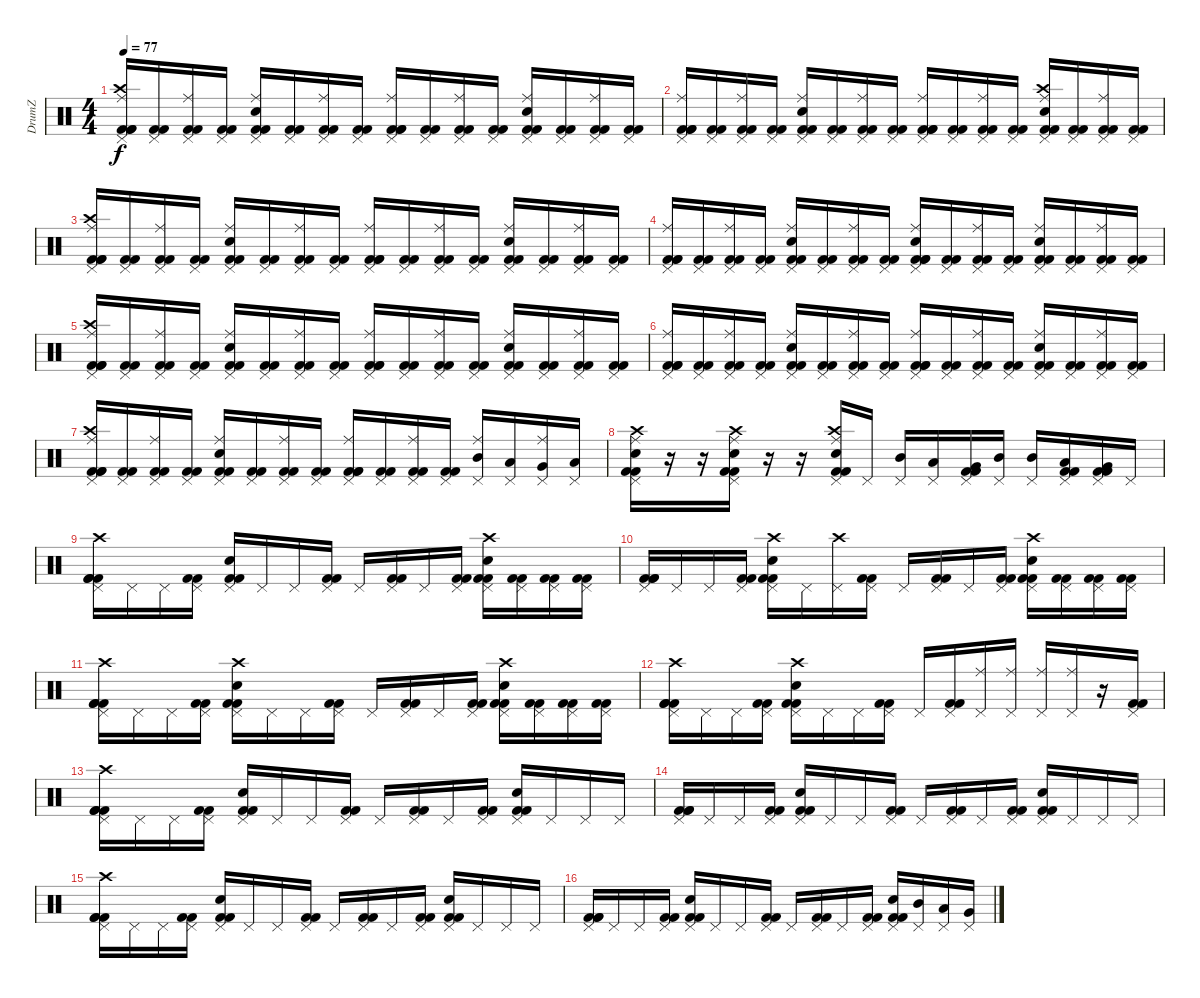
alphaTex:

\track ("DrumZ" "DrumZ") {instrument percussion}
\staff {score}
\articulation defaults
\ts (4 4)
\tempo 77
\clef neutral
\ks c
("Ride (middle)" "Crash high (hit)" "Kick (hit) 2" "Kick (hit) 2" "Kick (hit) 2" "Pedal Hi-Hat (hit)").16{dy f} ("Kick (hit) 2" "Kick (hit) 2" "Pedal Hi-Hat (hit)").16 ("Ride (middle)" "Kick (hit) 2" "Kick (hit) 2" "Pedal Hi-Hat (hit)").16 ("Kick (hit) 2" "Kick (hit) 2" "Pedal Hi-Hat (hit)").16 ("Ride (middle)" "Electric Snare (hit)" "Kick (hit) 2" "Kick (hit) 2" "Pedal Hi-Hat (hit)").16 ("Kick (hit) 2" "Kick (hit) 2" "Pedal Hi-Hat (hit)").16 ("Ride (middle)" "Kick (hit) 2" "Kick (hit) 2" "Pedal Hi-Hat (hit)").16 ("Kick (hit) 2" "Kick (hit) 2" "Pedal Hi-Hat (hit)").16 ("Ride (middle)" "Kick (hit) 2" "Kick (hit) 2" "Kick (hit) 2" "Pedal Hi-Hat (hit)").16 ("Kick (hit) 2" "Kick (hit) 2" "Pedal Hi-Hat (hit)").16 ("Ride (middle)" "Kick (hit) 2" "Kick (hit) 2" "Pedal Hi-Hat (hit)").16 ("Kick (hit) 2" "Kick (hit) 2" "Pedal Hi-Hat (hit)").16 ("Ride (middle)" "Electric Snare (hit)" "Kick (hit) 2" "Kick (hit) 2" "Pedal Hi-Hat (hit)").16 ("Kick (hit) 2" "Kick (hit) 2" "Pedal Hi-Hat (hit)").16 ("Ride (middle)" "Kick (hit) 2" "Kick (hit) 2" "Pedal Hi-Hat (hit)").16 ("Kick (hit) 2" "Kick (hit) 2" "Pedal Hi-Hat (hit)").16 |
("Pedal Hi-Hat (hit)" "Kick (hit) 2" "Kick (hit) 2" "Kick (hit) 2" "Ride (middle)").16 ("Pedal Hi-Hat (hit)" "Kick (hit) 2" "Kick (hit) 2").16 ("Pedal Hi-Hat (hit)" "Kick (hit) 2" "Kick (hit) 2" "Ride (middle)").16 ("Pedal Hi-Hat (hit)" "Kick (hit) 2" "Kick (hit) 2").16 ("Pedal Hi-Hat (hit)" "Electric Snare (hit)" "Kick (hit) 2" "Kick (hit) 2" "Ride (middle)").16 ("Pedal Hi-Hat (hit)" "Kick (hit) 2" "Kick (hit) 2").16 ("Pedal Hi-Hat (hit)" "Kick (hit) 2" "Kick (hit) 2" "Ride (middle)").16 ("Pedal Hi-Hat (hit)" "Kick (hit) 2" "Kick (hit) 2").16 ("Pedal Hi-Hat (hit)" "Kick (hit) 2" "Kick (hit) 2" "Kick (hit) 2" "Ride (middle)").16 ("Pedal Hi-Hat (hit)" "Kick (hit) 2" "Kick (hit) 2").16 ("Pedal Hi-Hat (hit)" "Kick (hit) 2" "Kick (hit) 2" "Ride (middle)").16 ("Pedal Hi-Hat (hit)" "Kick (hit) 2" "Kick (hit) 2").16 ("Pedal Hi-Hat (hit)" "Electric Snare (hit)" "Kick (hit) 2" "Kick (hit) 2" "Crash high (hit)" "Ride (middle)").16 ("Pedal Hi-Hat (hit)" "Kick (hit) 2" "Kick (hit) 2").16 ("Pedal Hi-Hat (hit)" "Kick (hit) 2" "Kick (hit) 2" "Ride (middle)").16 ("Pedal Hi-Hat (hit)" "Kick (hit) 2" "Kick (hit) 2").16 |
("Pedal Hi-Hat (hit)" "Crash high (hit)" "Kick (hit) 2" "Kick (hit) 2" "Kick (hit) 2" "Ride (middle)").16 ("Pedal Hi-Hat (hit)" "Kick (hit) 2" "Kick (hit) 2").16 ("Pedal Hi-Hat (hit)" "Kick (hit) 2" "Kick (hit) 2" "Ride (middle)").16 ("Pedal Hi-Hat (hit)" "Kick (hit) 2" "Kick (hit) 2").16 ("Pedal Hi-Hat (hit)" "Electric Snare (hit)" "Kick (hit) 2" "Kick (hit) 2" "Ride (middle)").16 ("Pedal Hi-Hat (hit)" "Kick (hit) 2" "Kick (hit) 2").16 ("Pedal Hi-Hat (hit)" "Kick (hit) 2" "Kick (hit) 2" "Ride (middle)").16 ("Pedal Hi-Hat (hit)" "Kick (hit) 2" "Kick (hit) 2").16 ("Pedal Hi-Hat (hit)" "Kick (hit) 2" "Kick (hit) 2" "Kick (hit) 2" "Ride (middle)").16 ("Pedal Hi-Hat (hit)" "Kick (hit) 2" "Kick (hit) 2").16 ("Pedal Hi-Hat (hit)" "Kick (hit) 2" "Kick (hit) 2" "Ride (middle)").16 ("Pedal Hi-Hat (hit)" "Kick (hit) 2" "Kick (hit) 2").16 ("Pedal Hi-Hat (hit)" "Electric Snare (hit)" "Kick (hit) 2" "Kick (hit) 2" "Ride (middle)").16 ("Pedal Hi-Hat (hit)" "Kick (hit) 2" "Kick (hit) 2").16 ("Pedal Hi-Hat (hit)" "Kick (hit) 2" "Kick (hit) 2" "Ride (middle)").16 ("Pedal Hi-Hat (hit)" "Kick (hit) 2" "Kick (hit) 2").16 |
("Pedal Hi-Hat (hit)" "Kick (hit) 2" "Kick (hit) 2" "Kick (hit) 2" "Ride (middle)").16 ("Pedal Hi-Hat (hit)" "Kick (hit) 2" "Kick (hit) 2").16 ("Pedal Hi-Hat (hit)" "Kick (hit) 2" "Kick (hit) 2" "Ride (middle)").16 ("Pedal Hi-Hat (hit)" "Kick (hit) 2" "Kick (hit) 2").16 ("Pedal Hi-Hat (hit)" "Electric Snare (hit)" "Kick (hit) 2" "Kick (hit) 2" "Ride (middle)").16 ("Pedal Hi-Hat (hit)" "Kick (hit) 2" "Kick (hit) 2").16 ("Pedal Hi-Hat (hit)" "Kick (hit) 2" "Kick (hit) 2" "Ride (middle)").16 ("Pedal Hi-Hat (hit)" "Kick (hit) 2" "Kick (hit) 2").16 ("Pedal Hi-Hat (hit)" "Electric Snare (hit)" "Kick (hit) 2" "Kick (hit) 2" "Kick (hit) 2" "Ride (middle)").16 ("Pedal Hi-Hat (hit)" "Kick (hit) 2" "Kick (hit) 2").16 ("Pedal Hi-Hat (hit)" "Kick (hit) 2" "Kick (hit) 2" "Ride (middle)").16 ("Pedal Hi-Hat (hit)" "Kick (hit) 2" "Kick (hit) 2").16 ("Pedal Hi-Hat (hit)" "Electric Snare (hit)" "Kick (hit) 2" "Kick (hit) 2" "Ride (middle)").16 ("Pedal Hi-Hat (hit)" "Kick (hit) 2" "Kick (hit) 2").16 ("Pedal Hi-Hat (hit)" "Kick (hit) 2" "Kick (hit) 2" "Ride (middle)").16 ("Pedal Hi-Hat (hit)" "Kick (hit) 2" "Kick (hit) 2").16 |
("Pedal Hi-Hat (hit)" "Crash high (hit)" "Kick (hit) 2" "Kick (hit) 2" "Kick (hit) 2" "Ride (middle)").16 ("Pedal Hi-Hat (hit)" "Kick (hit) 2" "Kick (hit) 2").16 ("Pedal Hi-Hat (hit)" "Kick (hit) 2" "Kick (hit) 2" "Ride (middle)").16 ("Pedal Hi-Hat (hit)" "Kick (hit) 2" "Kick (hit) 2").16 ("Pedal Hi-Hat (hit)" "Electric Snare (hit)" "Kick (hit) 2" "Kick (hit) 2" "Ride (middle)").16 ("Pedal Hi-Hat (hit)" "Kick (hit) 2" "Kick (hit) 2").16 ("Pedal Hi-Hat (hit)" "Kick (hit) 2" "Kick (hit) 2" "Ride (middle)").16 ("Pedal Hi-Hat (hit)" "Kick (hit) 2" "Kick (hit) 2").16 ("Pedal Hi-Hat (hit)" "Kick (hit) 2" "Kick (hit) 2" "Kick (hit) 2" "Ride (middle)").16 ("Pedal Hi-Hat (hit)" "Kick (hit) 2" "Kick (hit) 2").16 ("Pedal Hi-Hat (hit)" "Kick (hit) 2" "Kick (hit) 2" "Ride (middle)").16 ("Pedal Hi-Hat (hit)" "Kick (hit) 2" "Kick (hit) 2").16 ("Pedal Hi-Hat (hit)" "Electric Snare (hit)" "Kick (hit) 2" "Kick (hit) 2" "Ride (middle)").16 ("Pedal Hi-Hat (hit)" "Kick (hit) 2" "Kick (hit) 2").16 ("Pedal Hi-Hat (hit)" "Kick (hit) 2" "Kick (hit) 2" "Ride (middle)").16 ("Pedal Hi-Hat (hit)" "Kick (hit) 2" "Kick (hit) 2").16 |
("Pedal Hi-Hat (hit)" "Kick (hit) 2" "Kick (hit) 2" "Kick (hit) 2" "Ride (middle)").16 ("Pedal Hi-Hat (hit)" "Kick (hit) 2" "Kick (hit) 2").16 ("Pedal Hi-Hat (hit)" "Kick (hit) 2" "Kick (hit) 2" "Ride (middle)").16 ("Pedal Hi-Hat (hit)" "Kick (hit) 2" "Kick (hit) 2").16 ("Pedal Hi-Hat (hit)" "Electric Snare (hit)" "Kick (hit) 2" "Kick (hit) 2" "Ride (middle)").16 ("Pedal Hi-Hat (hit)" "Kick (hit) 2" "Kick (hit) 2").16 ("Pedal Hi-Hat (hit)" "Kick (hit) 2" "Kick (hit) 2" "Ride (middle)").16 ("Pedal Hi-Hat (hit)" "Kick (hit) 2" "Kick (hit) 2").16 ("Pedal Hi-Hat (hit)" "Kick (hit) 2" "Kick (hit) 2" "Kick (hit) 2" "Ride (middle)").16 ("Pedal Hi-Hat (hit)" "Kick (hit) 2" "Kick (hit) 2").16 ("Pedal Hi-Hat (hit)" "Kick (hit) 2" "Kick (hit) 2" "Ride (middle)").16 ("Pedal Hi-Hat (hit)" "Kick (hit) 2" "Kick (hit) 2").16 ("Pedal Hi-Hat (hit)" "Electric Snare (hit)" "Kick (hit) 2" "Kick (hit) 2" "Ride (middle)").16 ("Pedal Hi-Hat (hit)" "Kick (hit) 2" "Kick (hit) 2").16 ("Pedal Hi-Hat (hit)" "Kick (hit) 2" "Kick (hit) 2" "Ride (middle)").16 ("Pedal Hi-Hat (hit)" "Kick (hit) 2" "Kick (hit) 2").16 |
("Pedal Hi-Hat (hit)" "Crash high (hit)" "Kick (hit) 2" "Kick (hit) 2" "Kick (hit) 2" "Ride (middle)").16 ("Pedal Hi-Hat (hit)" "Kick (hit) 2" "Kick (hit) 2").16 ("Pedal Hi-Hat (hit)" "Kick (hit) 2" "Kick (hit) 2" "Ride (middle)").16 ("Pedal Hi-Hat (hit)" "Kick (hit) 2" "Kick (hit) 2").16 ("Pedal Hi-Hat (hit)" "Electric Snare (hit)" "Kick (hit) 2" "Kick (hit) 2" "Ride (middle)").16 ("Pedal Hi-Hat (hit)" "Kick (hit) 2" "Kick (hit) 2").16 ("Pedal Hi-Hat (hit)" "Kick (hit) 2" "Kick (hit) 2" "Ride (middle)").16 ("Pedal Hi-Hat (hit)" "Kick (hit) 2" "Kick (hit) 2").16 ("Pedal Hi-Hat (hit)" "Kick (hit) 2" "Kick (hit) 2" "Kick (hit) 2" "Ride (middle)").16 ("Pedal Hi-Hat (hit)" "Kick (hit) 2" "Kick (hit) 2").16 ("Pedal Hi-Hat (hit)" "Kick (hit) 2" "Kick (hit) 2" "Ride (middle)").16 ("Pedal Hi-Hat (hit)" "Kick (hit) 2" "Kick (hit) 2").16 ("Pedal Hi-Hat (hit)" "Mid Tom (hit)" "Ride (middle)").16 ("Pedal Hi-Hat (hit)" "Low Tom (hit)").16 ("Pedal Hi-Hat (hit)" "Very Low Tom (hit)" "Ride (middle)").16 ("Pedal Hi-Hat (hit)" "Low Floor Tom (hit)").16 |
("Pedal Hi-Hat (hit)" "Crash high (hit)" "Kick (hit) 2" "Kick (hit) 2" "Electric Snare (hit)" "Ride (middle)").16 r.16 r.16 ("Pedal Hi-Hat (hit)" "Crash high (hit)" "Kick (hit) 2" "Kick (hit) 2" "Electric Snare (hit)" "Ride (middle)").16 r.16 r.16 ("Pedal Hi-Hat (hit)" "Crash high (hit)" "Kick (hit) 2" "Kick (hit) 2" "Electric Snare (hit)" "Ride (middle)").16 "Pedal Hi-Hat (hit)".16 ("Pedal Hi-Hat (hit)" "Mid Tom (hit)").16 ("Pedal Hi-Hat (hit)" "Low Tom (hit)").16 ("Pedal Hi-Hat (hit)" "Very Low Tom (hit)" "Kick (hit) 2" "Kick (hit) 2").16 ("Pedal Hi-Hat (hit)" "Mid Tom (hit)").16 ("Pedal Hi-Hat (hit)" "Mid Tom (hit)").16 ("Pedal Hi-Hat (hit)" "Low Tom (hit)" "Kick (hit) 2" "Kick (hit) 2").16 ("Pedal Hi-Hat (hit)" "Very Low Tom (hit)" "Kick (hit) 2" "Kick (hit) 2").16 "Pedal Hi-Hat (hit)".16 |
("Pedal Hi-Hat (hit)" "Crash high (hit)" "Kick (hit) 2" "Kick (hit) 2" "Kick (hit) 2").16 "Pedal Hi-Hat (hit)".16 "Pedal Hi-Hat (hit)".16 ("Pedal Hi-Hat (hit)" "Kick (hit) 2" "Kick (hit) 2").16 ("Pedal Hi-Hat (hit)" "Electric Snare (hit)" "Kick (hit) 2" "Kick (hit) 2").16 "Pedal Hi-Hat (hit)".16 "Pedal Hi-Hat (hit)".16 ("Pedal Hi-Hat (hit)" "Kick (hit) 2" "Kick (hit) 2").16 "Pedal Hi-Hat (hit)".16 ("Pedal Hi-Hat (hit)" "Kick (hit) 2" "Kick (hit) 2").16 "Pedal Hi-Hat (hit)".16 ("Pedal Hi-Hat (hit)" "Kick (hit) 2" "Kick (hit) 2").16 ("Pedal Hi-Hat (hit)" "Electric Snare (hit)" "Kick (hit) 2" "Kick (hit) 2" "Crash high (hit)").16 ("Pedal Hi-Hat (hit)" "Kick (hit) 2" "Kick (hit) 2").16 ("Pedal Hi-Hat (hit)" "Kick (hit) 2" "Kick (hit) 2").16 ("Pedal Hi-Hat (hit)" "Kick (hit) 2" "Kick (hit) 2").16 |
("Pedal Hi-Hat (hit)" "Kick (hit) 2" "Kick (hit) 2" "Kick (hit) 2").16 "Pedal Hi-Hat (hit)".16 "Pedal Hi-Hat (hit)".16 ("Pedal Hi-Hat (hit)" "Kick (hit) 2" "Kick (hit) 2").16 ("Pedal Hi-Hat (hit)" "Electric Snare (hit)" "Kick (hit) 2" "Kick (hit) 2" "Crash high (hit)").16 "Pedal Hi-Hat (hit)".16 ("Pedal Hi-Hat (hit)" "Crash high (hit)").16 ("Pedal Hi-Hat (hit)" "Kick (hit) 2" "Kick (hit) 2").16 "Pedal Hi-Hat (hit)".16 ("Pedal Hi-Hat (hit)" "Kick (hit) 2" "Kick (hit) 2").16 "Pedal Hi-Hat (hit)".16 ("Pedal Hi-Hat (hit)" "Kick (hit) 2" "Kick (hit) 2").16 ("Pedal Hi-Hat (hit)" "Electric Snare (hit)" "Kick (hit) 2" "Kick (hit) 2" "Crash high (hit)").16 ("Pedal Hi-Hat (hit)" "Kick (hit) 2" "Kick (hit) 2").16 ("Pedal Hi-Hat (hit)" "Kick (hit) 2" "Kick (hit) 2").16 ("Pedal Hi-Hat (hit)" "Kick (hit) 2" "Kick (hit) 2").16 |
("Pedal Hi-Hat (hit)" "Crash high (hit)" "Kick (hit) 2" "Kick (hit) 2" "Kick (hit) 2").16 "Pedal Hi-Hat (hit)".16 "Pedal Hi-Hat (hit)".16 ("Pedal Hi-Hat (hit)" "Kick (hit) 2" "Kick (hit) 2").16 ("Pedal Hi-Hat (hit)" "Electric Snare (hit)" "Kick (hit) 2" "Kick (hit) 2" "Crash high (hit)").16 "Pedal Hi-Hat (hit)".16 "Pedal Hi-Hat (hit)".16 ("Pedal Hi-Hat (hit)" "Kick (hit) 2" "Kick (hit) 2").16 "Pedal Hi-Hat (hit)".16 ("Pedal Hi-Hat (hit)" "Kick (hit) 2" "Kick (hit) 2").16 "Pedal Hi-Hat (hit)".16 ("Pedal Hi-Hat (hit)" "Kick (hit) 2" "Kick (hit) 2").16 ("Pedal Hi-Hat (hit)" "Electric Snare (hit)" "Kick (hit) 2" "Kick (hit) 2" "Crash high (hit)").16 ("Pedal Hi-Hat (hit)" "Kick (hit) 2" "Kick (hit) 2").16 ("Pedal Hi-Hat (hit)" "Kick (hit) 2" "Kick (hit) 2").16 ("Pedal Hi-Hat (hit)" "Kick (hit) 2" "Kick (hit) 2").16 |
("Pedal Hi-Hat (hit)" "Crash high (hit)" "Kick (hit) 2" "Kick (hit) 2" "Kick (hit) 2").16 "Pedal Hi-Hat (hit)".16 "Pedal Hi-Hat (hit)".16 ("Pedal Hi-Hat (hit)" "Kick (hit) 2" "Kick (hit) 2").16 ("Pedal Hi-Hat (hit)" "Electric Snare (hit)" "Kick (hit) 2" "Kick (hit) 2" "Crash high (hit)").16 "Pedal Hi-Hat (hit)".16 "Pedal Hi-Hat (hit)".16 ("Pedal Hi-Hat (hit)" "Kick (hit) 2" "Kick (hit) 2").16 "Pedal Hi-Hat (hit)".16 ("Pedal Hi-Hat (hit)" "Kick (hit) 2" "Kick (hit) 2").16 ("Pedal Hi-Hat (hit)" "Ride (middle)").16 ("Pedal Hi-Hat (hit)" "Ride (middle)").16 ("Pedal Hi-Hat (hit)" "Ride (middle)").16 ("Pedal Hi-Hat (hit)" "Ride (middle)").16 r.16 ("Pedal Hi-Hat (hit)" "Kick (hit) 2" "Kick (hit) 2").16 |
("Pedal Hi-Hat (hit)" "Crash high (hit)" "Kick (hit) 2" "Kick (hit) 2" "Kick (hit) 2").16 "Pedal Hi-Hat (hit)".16 "Pedal Hi-Hat (hit)".16 ("Pedal Hi-Hat (hit)" "Kick (hit) 2" "Kick (hit) 2").16 ("Pedal Hi-Hat (hit)" "Electric Snare (hit)" "Kick (hit) 2" "Kick (hit) 2").16 "Pedal Hi-Hat (hit)".16 "Pedal Hi-Hat (hit)".16 ("Pedal Hi-Hat (hit)" "Kick (hit) 2" "Kick (hit) 2").16 "Pedal Hi-Hat (hit)".16 ("Pedal Hi-Hat (hit)" "Kick (hit) 2" "Kick (hit) 2").16 "Pedal Hi-Hat (hit)".16 ("Pedal Hi-Hat (hit)" "Kick (hit) 2" "Kick (hit) 2").16 ("Pedal Hi-Hat (hit)" "Electric Snare (hit)" "Kick (hit) 2" "Kick (hit) 2").16 "Pedal Hi-Hat (hit)".16 "Pedal Hi-Hat (hit)".16 "Pedal Hi-Hat (hit)".16 |
("Pedal Hi-Hat (hit)" "Kick (hit) 2" "Kick (hit) 2" "Kick (hit) 2").16 "Pedal Hi-Hat (hit)".16 "Pedal Hi-Hat (hit)".16 ("Pedal Hi-Hat (hit)" "Kick (hit) 2" "Kick (hit) 2").16 ("Pedal Hi-Hat (hit)" "Electric Snare (hit)" "Kick (hit) 2" "Kick (hit) 2").16 "Pedal Hi-Hat (hit)".16 "Pedal Hi-Hat (hit)".16 ("Pedal Hi-Hat (hit)" "Kick (hit) 2" "Kick (hit) 2").16 "Pedal Hi-Hat (hit)".16 ("Pedal Hi-Hat (hit)" "Kick (hit) 2" "Kick (hit) 2").16 "Pedal Hi-Hat (hit)".16 ("Pedal Hi-Hat (hit)" "Kick (hit) 2" "Kick (hit) 2").16 ("Pedal Hi-Hat (hit)" "Electric Snare (hit)" "Kick (hit) 2" "Kick (hit) 2").16 "Pedal Hi-Hat (hit)".16 "Pedal Hi-Hat (hit)".16 "Pedal Hi-Hat (hit)".16 |
("Pedal Hi-Hat (hit)" "Crash high (hit)" "Kick (hit) 2" "Kick (hit) 2" "Kick (hit) 2").16 "Pedal Hi-Hat (hit)".16 "Pedal Hi-Hat (hit)".16 ("Pedal Hi-Hat (hit)" "Kick (hit) 2" "Kick (hit) 2").16 ("Pedal Hi-Hat (hit)" "Electric Snare (hit)" "Kick (hit) 2" "Kick (hit) 2").16 "Pedal Hi-Hat (hit)".16 "Pedal Hi-Hat (hit)".16 ("Pedal Hi-Hat (hit)" "Kick (hit) 2" "Kick (hit) 2").16 "Pedal Hi-Hat (hit)".16 ("Pedal Hi-Hat (hit)" "Kick (hit) 2" "Kick (hit) 2").16 "Pedal Hi-Hat (hit)".16 ("Pedal Hi-Hat (hit)" "Kick (hit) 2" "Kick (hit) 2").16 ("Pedal Hi-Hat (hit)" "Electric Snare (hit)" "Kick (hit) 2" "Kick (hit) 2").16 "Pedal Hi-Hat (hit)".16 "Pedal Hi-Hat (hit)".16 "Pedal Hi-Hat (hit)".16 |
("Pedal Hi-Hat (hit)" "Kick (hit) 2" "Kick (hit) 2" "Kick (hit) 2").16 "Pedal Hi-Hat (hit)".16 "Pedal Hi-Hat (hit)".16 ("Pedal Hi-Hat (hit)" "Kick (hit) 2" "Kick (hit) 2").16 ("Pedal Hi-Hat (hit)" "Electric Snare (hit)" "Kick (hit) 2" "Kick (hit) 2").16 "Pedal Hi-Hat (hit)".16 "Pedal Hi-Hat (hit)".16 ("Pedal Hi-Hat (hit)" "Kick (hit) 2" "Kick (hit) 2").16 "Pedal Hi-Hat (hit)".16 ("Pedal Hi-Hat (hit)" "Kick (hit) 2" "Kick (hit) 2").16 "Pedal Hi-Hat (hit)".16 ("Pedal Hi-Hat (hit)" "Kick (hit) 2" "Kick (hit) 2").16 ("Pedal Hi-Hat (hit)" "Electric Snare (hit)" "Kick (hit) 2" "Kick (hit) 2").16 ("Pedal Hi-Hat (hit)" "Mid Tom (hit)").16 ("Pedal Hi-Hat (hit)" "Low Tom (hit)").16 ("Pedal Hi-Hat (hit)" "Very Low Tom (hit)").16
